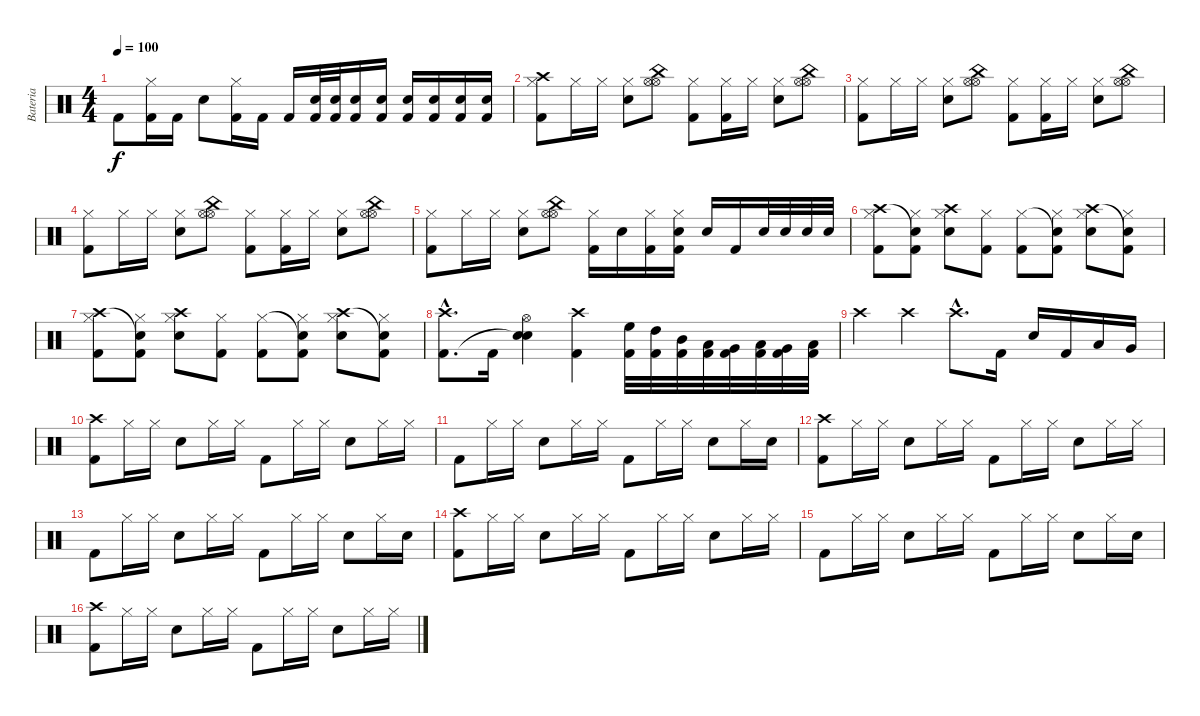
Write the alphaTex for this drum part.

\track ("Bateria" "Bateria") {instrument percussion}
\staff {score}
\articulation defaults
\ts (4 4)
\tempo 100
\clef neutral
\ks c "Kick (hit) 2".8{dy f}
("Hi-Hat (closed)" "Kick (hit) 2").16 "Kick (hit) 2".16 "Electric Snare (hit)".8 ("Hi-Hat (closed)" "Kick (hit) 2").16 "Kick (hit) 2".16 "Kick (hit) 2".16 ("Electric Snare (hit)" "Kick (hit) 2").32 ("Electric Snare (hit)" "Kick (hit) 2").32 ("Electric Snare (hit)" "Kick (hit) 2").16 ("Electric Snare (hit)" "Kick (hit) 2").16 ("Electric Snare (hit)" "Kick (hit) 2").16 ("Electric Snare (hit)" "Kick (hit) 2").16 ("Electric Snare (hit)" "Kick (hit) 2").16 ("Electric Snare (hit)" "Kick (hit) 2").16 |
("Crash high (hit)" "Hi-Hat (closed)" "Kick (hit) 2").8 "Hi-Hat (closed)".16 "Hi-Hat (closed)".16 ("Electric Snare (hit)" "Hi-Hat (closed)").8 ("China (hit)" "Hi-Hat (open)" "Hi-Hat (open)").8 ("Hi-Hat (closed)" "Kick (hit) 2").8 ("Hi-Hat (closed)" "Kick (hit) 2").16 "Hi-Hat (closed)".16 ("Electric Snare (hit)" "Hi-Hat (closed)").8 ("China (hit)" "Hi-Hat (open)" "Hi-Hat (open)").8 |
("Hi-Hat (closed)" "Kick (hit) 2").8 "Hi-Hat (closed)".16 "Hi-Hat (closed)".16 ("Electric Snare (hit)" "Hi-Hat (closed)").8 ("China (hit)" "Hi-Hat (open)" "Hi-Hat (open)").8 ("Hi-Hat (closed)" "Kick (hit) 2").8 ("Hi-Hat (closed)" "Kick (hit) 2").16 "Hi-Hat (closed)".16 ("Electric Snare (hit)" "Hi-Hat (closed)").8 ("China (hit)" "Hi-Hat (open)" "Hi-Hat (open)").8 |
("Hi-Hat (closed)" "Kick (hit) 2").8 "Hi-Hat (closed)".16 "Hi-Hat (closed)".16 ("Electric Snare (hit)" "Hi-Hat (closed)").8 ("China (hit)" "Hi-Hat (open)" "Hi-Hat (open)").8 ("Hi-Hat (closed)" "Kick (hit) 2").8 ("Hi-Hat (closed)" "Kick (hit) 2").16 "Hi-Hat (closed)".16 ("Electric Snare (hit)" "Hi-Hat (closed)").8 ("China (hit)" "Hi-Hat (open)" "Hi-Hat (open)").8 |
("Hi-Hat (closed)" "Kick (hit) 2").8 "Hi-Hat (closed)".16 "Hi-Hat (closed)".16 ("Electric Snare (hit)" "Hi-Hat (closed)").8 ("China (hit)" "Hi-Hat (open)" "Hi-Hat (open)").8 ("Hi-Hat (closed)" "Kick (hit) 2").16 "Electric Snare (hit)".16 ("Hi-Hat (closed)" "Kick (hit) 2").16 ("Electric Snare (hit)" "Hi-Hat (closed)" "Kick (hit) 2").16 "Electric Snare (hit)".16 "Kick (hit) 2".16 "Electric Snare (hit)".32 "Electric Snare (hit)".32 "Electric Snare (hit)".32 "Electric Snare (hit)".32 |
("Crash high (hit)" "Hi-Hat (closed)" "Kick (hit) 2").8 ("Snare (hit)"{t} "Hi-Hat (closed)" "Kick (hit) 2").8 ("Crash high (hit)" "Hi-Hat (closed)" "Electric Snare (hit)").8 ("Hi-Hat (closed)" "Kick (hit) 2").8 ("Hi-Hat (closed)" "Kick (hit) 2").8 ("Snare (hit)"{t} "Hi-Hat (closed)" "Kick (hit) 2").8 ("Crash high (hit)" "Hi-Hat (closed)" "Electric Snare (hit)").8 ("Snare (hit)"{t} "Hi-Hat (closed)" "Kick (hit) 2").8 |
("Crash high (hit)" "Hi-Hat (closed)" "Kick (hit) 2").8 ("Snare (hit)"{t} "Hi-Hat (closed)" "Kick (hit) 2").8 ("Crash high (hit)" "Hi-Hat (closed)" "Electric Snare (hit)").8 ("Hi-Hat (closed)" "Kick (hit) 2").8 ("Hi-Hat (closed)" "Kick (hit) 2").8 ("Snare (hit)"{t} "Hi-Hat (closed)" "Kick (hit) 2").8 ("Crash high (hit)" "Hi-Hat (closed)" "Electric Snare (hit)").8 ("Snare (hit)"{t} "Hi-Hat (closed)" "Kick (hit) 2").8 |
("Crash high (hit)"{hac} "Kick (hit) 2"{hac}).8{d} "Kick (hit) 2".16 ("Hi-Hat (open)" "Snare (hit)"{t} "Electric Snare (hit)").4 ("Crash high (hit)" "Kick (hit) 2").4 ("High Floor Tom (hit)" "Kick (hit) 2").32 ("High Tom (hit)" "Kick (hit) 2").32 ("Mid Tom (hit)" "Kick (hit) 2").32 ("Low Tom (hit)" "Kick (hit) 2").32 ("Very Low Tom (hit)" "Kick (hit) 2").32 ("Low Tom (hit)" "Kick (hit) 2").32 ("Very Low Tom (hit)" "Kick (hit) 2").32 ("Low Floor Tom (hit)" "Kick (hit) 2").32 |
"Crash high (hit)".4 "Crash high (hit)".4 "Crash high (hit)"{hac}.8{d} "Kick (hit) 2".16 "Electric Snare (hit)".16 "Kick (hit) 2".16 "Low Tom (hit)".16 "Very Low Tom (hit)".16 |
("Crash high (hit)" "Kick (hit) 2").8 "Hi-Hat (closed)".16 "Hi-Hat (closed)".16 "Electric Snare (hit)".8 "Hi-Hat (closed)".16 "Hi-Hat (closed)".16 "Kick (hit) 2".8 "Hi-Hat (closed)".16 "Hi-Hat (closed)".16 "Electric Snare (hit)".8 "Hi-Hat (closed)".16 "Hi-Hat (closed)".16 |
"Kick (hit) 2".8 "Hi-Hat (closed)".16 "Hi-Hat (closed)".16 "Electric Snare (hit)".8 "Hi-Hat (closed)".16 "Hi-Hat (closed)".16 "Kick (hit) 2".8 "Hi-Hat (closed)".16 "Hi-Hat (closed)".16 "Electric Snare (hit)".8 "Hi-Hat (closed)".16 "Electric Snare (hit)".16 |
("Crash high (hit)" "Kick (hit) 2").8 "Hi-Hat (closed)".16 "Hi-Hat (closed)".16 "Electric Snare (hit)".8 "Hi-Hat (closed)".16 "Hi-Hat (closed)".16 "Kick (hit) 2".8 "Hi-Hat (closed)".16 "Hi-Hat (closed)".16 "Electric Snare (hit)".8 "Hi-Hat (closed)".16 "Hi-Hat (closed)".16 |
"Kick (hit) 2".8 "Hi-Hat (closed)".16 "Hi-Hat (closed)".16 "Electric Snare (hit)".8 "Hi-Hat (closed)".16 "Hi-Hat (closed)".16 "Kick (hit) 2".8 "Hi-Hat (closed)".16 "Hi-Hat (closed)".16 "Electric Snare (hit)".8 "Hi-Hat (closed)".16 "Electric Snare (hit)".16 |
("Crash high (hit)" "Kick (hit) 2").8 "Hi-Hat (closed)".16 "Hi-Hat (closed)".16 "Electric Snare (hit)".8 "Hi-Hat (closed)".16 "Hi-Hat (closed)".16 "Kick (hit) 2".8 "Hi-Hat (closed)".16 "Hi-Hat (closed)".16 "Electric Snare (hit)".8 "Hi-Hat (closed)".16 "Hi-Hat (closed)".16 |
"Kick (hit) 2".8 "Hi-Hat (closed)".16 "Hi-Hat (closed)".16 "Electric Snare (hit)".8 "Hi-Hat (closed)".16 "Hi-Hat (closed)".16 "Kick (hit) 2".8 "Hi-Hat (closed)".16 "Hi-Hat (closed)".16 "Electric Snare (hit)".8 "Hi-Hat (closed)".16 "Electric Snare (hit)".16 |
("Crash high (hit)" "Kick (hit) 2").8 "Hi-Hat (closed)".16 "Hi-Hat (closed)".16 "Electric Snare (hit)".8 "Hi-Hat (closed)".16 "Hi-Hat (closed)".16 "Kick (hit) 2".8 "Hi-Hat (closed)".16 "Hi-Hat (closed)".16 "Electric Snare (hit)".8 "Hi-Hat (closed)".16 "Hi-Hat (closed)".16
